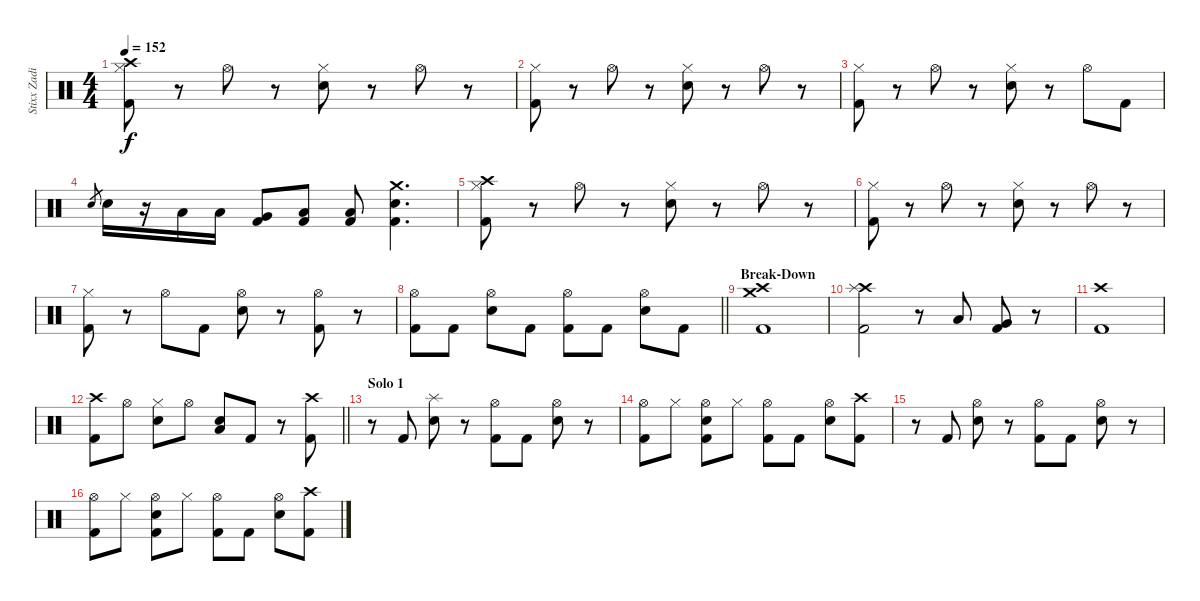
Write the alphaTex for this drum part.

\track ("Stixx Zadinia (Drums)" "Stixx Zadi") {instrument percussion}
\staff {score}
\articulation defaults
\ts (4 4)
\tempo 152
\clef neutral
\ks c
("Crash high (hit)" "Hi-Hat (closed)" "Kick (hit) 2").8{dy f} r.8 "Hi-Hat (open)".8 r.8 ("Hi-Hat (closed)" "Snare (hit) 2").8 r.8 "Hi-Hat (open)".8 r.8 |
("Hi-Hat (closed)" "Kick (hit) 2").8 r.8 "Hi-Hat (open)".8 r.8 ("Hi-Hat (closed)" "Snare (hit) 2").8 r.8 "Hi-Hat (open)".8 r.8 |
("Hi-Hat (closed)" "Kick (hit) 2").8 r.8 "Hi-Hat (open)".8 r.8 ("Hi-Hat (closed)" "Snare (hit) 2").8 r.8 "Hi-Hat (open)".8 "Kick (hit) 2".8 |
"Snare (hit) 2".8{gr} "Snare (hit) 2".16 r.16 "Low Tom (hit)".16 "Low Tom (hit)".16 ("Very Low Tom (hit)" "Kick (hit) 2").8 ("Low Floor Tom (hit)" "Kick (hit) 2").8 ("Low Floor Tom (hit)" "Kick (hit) 2").8 ("Crash medium (hit)" "Snare (hit) 2" "Kick (hit) 2").4{d} |
("Crash high (hit)" "Hi-Hat (closed)" "Kick (hit) 2").8 r.8 "Hi-Hat (open)".8 r.8 ("Hi-Hat (closed)" "Snare (hit) 2").8 r.8 "Hi-Hat (open)".8 r.8 |
("Hi-Hat (closed)" "Kick (hit) 2").8 r.8 "Hi-Hat (open)".8 r.8 ("Hi-Hat (closed)" "Snare (hit) 2").8 r.8 "Hi-Hat (open)".8 r.8 |
("Hi-Hat (closed)" "Kick (hit) 2").8 r.8 "Hi-Hat (open)".8 "Kick (hit) 2".8 ("Hi-Hat (open)" "Snare (hit) 2").8 r.8 ("Hi-Hat (open)" "Kick (hit) 2").8 r.8 |
\barLineRight lightlight
("Hi-Hat (open)" "Kick (hit) 2").8 "Kick (hit) 2".8 ("Hi-Hat (open)" "Snare (hit) 2").8 "Kick (hit) 2".8 ("Hi-Hat (open)" "Kick (hit) 2").8 "Kick (hit) 2".8 ("Hi-Hat (open)" "Snare (hit) 2").8 "Kick (hit) 2".8 |
\section ("" "Break-Down")
("Crash high (hit)" "Crash medium (hit)" "Kick (hit) 2").1 |
("Crash high (hit)" "Splash (hit)" "Kick (hit) 2").2 r.8 "Low Tom (hit)".8 ("Very Low Tom (hit)" "Kick (hit) 2").8 r.8 |
("Crash high (hit)" "Kick (hit) 2").1 |
\barLineRight lightlight
("Crash high (hit)" "Kick (hit) 2").8 "Hi-Hat (open)".8 ("Hi-Hat (closed)" "Snare (hit) 2").8 "Hi-Hat (open)".8 ("Low Floor Tom (hit)" "Snare (hit) 2").8 "Kick (hit) 2".8 r.8 ("Crash high (hit)" "Kick (hit) 2").8 |
\section ("" "Solo 1")
r.8 "Kick (hit) 2".8 ("Splash (hit)" "Snare (hit) 2").8 r.8 ("Hi-Hat (open)" "Kick (hit) 2").8 "Kick (hit) 2".8 ("Hi-Hat (open)" "Snare (hit) 2").8 r.8 |
("Hi-Hat (open)" "Kick (hit) 2").8 "Hi-Hat (closed)".8 ("Hi-Hat (open)" "Snare (hit) 2" "Kick (hit) 2").8 "Hi-Hat (closed)".8 ("Hi-Hat (open)" "Kick (hit) 2").8 "Kick (hit) 2".8 ("Hi-Hat (open)" "Snare (hit) 2").8 ("Crash high (hit)" "Kick (hit) 2").8 |
r.8 "Kick (hit) 2".8 ("Hi-Hat (open)" "Snare (hit) 2").8 r.8 ("Hi-Hat (open)" "Kick (hit) 2").8 "Kick (hit) 2".8 ("Hi-Hat (open)" "Snare (hit) 2").8 r.8 |
("Hi-Hat (open)" "Kick (hit) 2").8 "Hi-Hat (closed)".8 ("Hi-Hat (open)" "Snare (hit) 2" "Kick (hit) 2").8 "Hi-Hat (closed)".8 ("Hi-Hat (open)" "Kick (hit) 2").8 "Kick (hit) 2".8 ("Hi-Hat (open)" "Snare (hit) 2").8 ("Crash high (hit)" "Kick (hit) 2").8
